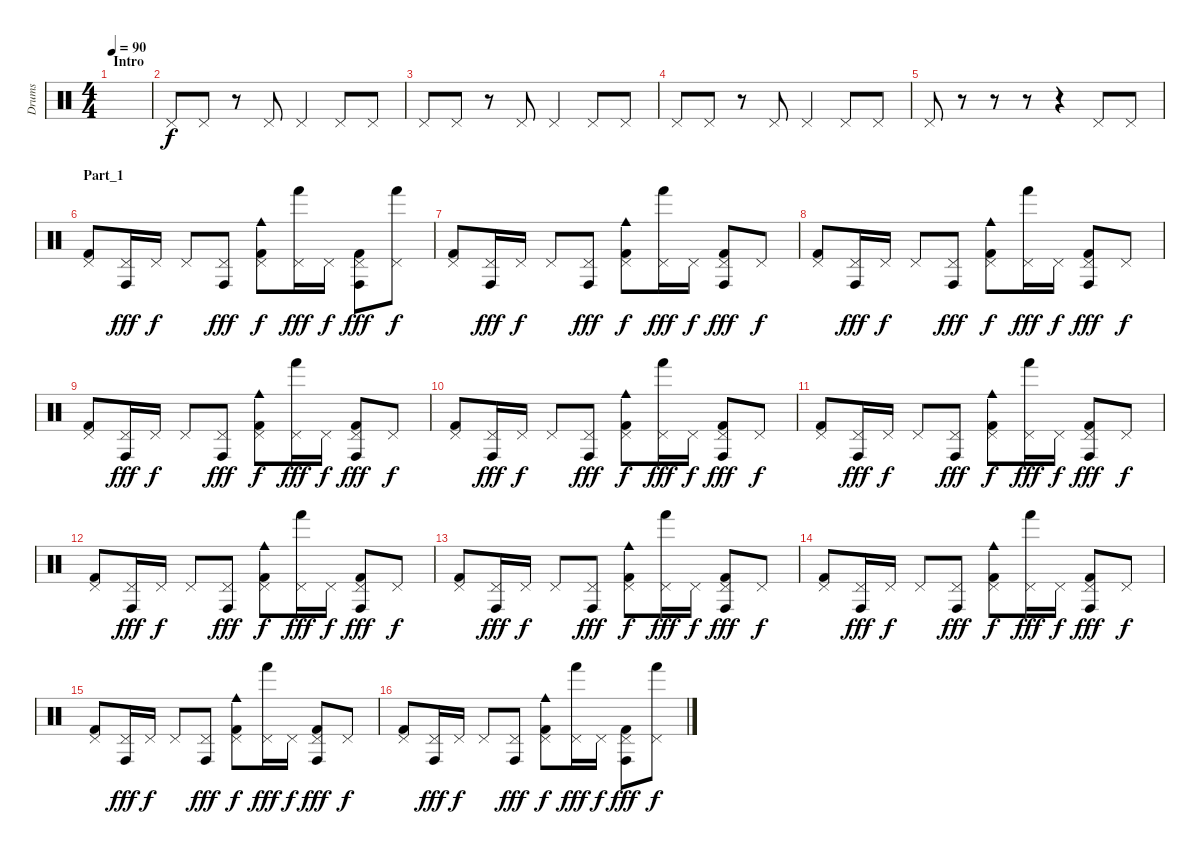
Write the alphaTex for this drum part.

\track (" Drums" " Drums") {instrument percussion}
\staff {score}
\articulation defaults
\ts (4 4)
\section ("" "Intro")
\tempo 90
\clef neutral
\ks c
|
"Pedal Hi-Hat (hit)".8 "Pedal Hi-Hat (hit)".8 r.8 "Pedal Hi-Hat (hit)".8 "Pedal Hi-Hat (hit)".4 "Pedal Hi-Hat (hit)".8 "Pedal Hi-Hat (hit)".8 |
"Pedal Hi-Hat (hit)".8 "Pedal Hi-Hat (hit)".8 r.8 "Pedal Hi-Hat (hit)".8 "Pedal Hi-Hat (hit)".4 "Pedal Hi-Hat (hit)".8 "Pedal Hi-Hat (hit)".8 |
"Pedal Hi-Hat (hit)".8 "Pedal Hi-Hat (hit)".8 r.8 "Pedal Hi-Hat (hit)".8 "Pedal Hi-Hat (hit)".4 "Pedal Hi-Hat (hit)".8 "Pedal Hi-Hat (hit)".8 |
"Pedal Hi-Hat (hit)".8 r.8 r.8 r.8 r.4 "Pedal Hi-Hat (hit)".8 "Pedal Hi-Hat (hit)".8 |
\section ("" "Part_1")
("Pedal Hi-Hat (hit)" "Kick (hit) 2").8 ("Pedal Hi-Hat (hit)" "Conga high (hit)").16{dy fff} "Pedal Hi-Hat (hit)".16{dy f} "Pedal Hi-Hat (hit)".8 ("Pedal Hi-Hat (hit)" "Conga high (hit)").8{dy fff} ("Pedal Hi-Hat (hit)" "Cowbell medium (hit)" "Kick (hit) 2").8{dy f} ("Pedal Hi-Hat (hit)" "Hand (hit)").16{dy fff} "Pedal Hi-Hat (hit)".16{dy f} ("Pedal Hi-Hat (hit)" "Conga high (hit)" "Kick (hit) 2").8{dy fff} ("Pedal Hi-Hat (hit)" "Hand (hit)").8{dy f} |
("Pedal Hi-Hat (hit)" "Kick (hit) 2").8 ("Pedal Hi-Hat (hit)" "Conga high (hit)").16{dy fff} "Pedal Hi-Hat (hit)".16{dy f} "Pedal Hi-Hat (hit)".8 ("Pedal Hi-Hat (hit)" "Conga high (hit)").8{dy fff} ("Pedal Hi-Hat (hit)" "Cowbell medium (hit)" "Kick (hit) 2").8{dy f} ("Pedal Hi-Hat (hit)" "Hand (hit)").16{dy fff} "Pedal Hi-Hat (hit)".16{dy f} ("Pedal Hi-Hat (hit)" "Conga high (hit)" "Kick (hit) 2").8{dy fff} "Pedal Hi-Hat (hit)".8{dy f} |
("Pedal Hi-Hat (hit)" "Kick (hit) 2").8 ("Pedal Hi-Hat (hit)" "Conga high (hit)").16{dy fff} "Pedal Hi-Hat (hit)".16{dy f} "Pedal Hi-Hat (hit)".8 ("Pedal Hi-Hat (hit)" "Conga high (hit)").8{dy fff} ("Pedal Hi-Hat (hit)" "Cowbell medium (hit)" "Kick (hit) 2").8{dy f} ("Pedal Hi-Hat (hit)" "Hand (hit)").16{dy fff} "Pedal Hi-Hat (hit)".16{dy f} ("Pedal Hi-Hat (hit)" "Conga high (hit)" "Kick (hit) 2").8{dy fff} "Pedal Hi-Hat (hit)".8{dy f} |
("Pedal Hi-Hat (hit)" "Kick (hit) 2").8 ("Pedal Hi-Hat (hit)" "Conga high (hit)").16{dy fff} "Pedal Hi-Hat (hit)".16{dy f} "Pedal Hi-Hat (hit)".8 ("Pedal Hi-Hat (hit)" "Conga high (hit)").8{dy fff} ("Pedal Hi-Hat (hit)" "Cowbell medium (hit)" "Kick (hit) 2").8{dy f} ("Pedal Hi-Hat (hit)" "Hand (hit)").16{dy fff} "Pedal Hi-Hat (hit)".16{dy f} ("Pedal Hi-Hat (hit)" "Conga high (hit)" "Kick (hit) 2").8{dy fff} "Pedal Hi-Hat (hit)".8{dy f} |
("Pedal Hi-Hat (hit)" "Kick (hit) 2").8 ("Pedal Hi-Hat (hit)" "Conga high (hit)").16{dy fff} "Pedal Hi-Hat (hit)".16{dy f} "Pedal Hi-Hat (hit)".8 ("Pedal Hi-Hat (hit)" "Conga high (hit)").8{dy fff} ("Pedal Hi-Hat (hit)" "Cowbell medium (hit)" "Kick (hit) 2").8{dy f} ("Pedal Hi-Hat (hit)" "Hand (hit)").16{dy fff} "Pedal Hi-Hat (hit)".16{dy f} ("Pedal Hi-Hat (hit)" "Conga high (hit)" "Kick (hit) 2").8{dy fff} "Pedal Hi-Hat (hit)".8{dy f} |
("Pedal Hi-Hat (hit)" "Kick (hit) 2").8 ("Pedal Hi-Hat (hit)" "Conga high (hit)").16{dy fff} "Pedal Hi-Hat (hit)".16{dy f} "Pedal Hi-Hat (hit)".8 ("Pedal Hi-Hat (hit)" "Conga high (hit)").8{dy fff} ("Pedal Hi-Hat (hit)" "Cowbell medium (hit)" "Kick (hit) 2").8{dy f} ("Pedal Hi-Hat (hit)" "Hand (hit)").16{dy fff} "Pedal Hi-Hat (hit)".16{dy f} ("Pedal Hi-Hat (hit)" "Conga high (hit)" "Kick (hit) 2").8{dy fff} "Pedal Hi-Hat (hit)".8{dy f} |
("Pedal Hi-Hat (hit)" "Kick (hit) 2").8 ("Pedal Hi-Hat (hit)" "Conga high (hit)").16{dy fff} "Pedal Hi-Hat (hit)".16{dy f} "Pedal Hi-Hat (hit)".8 ("Pedal Hi-Hat (hit)" "Conga high (hit)").8{dy fff} ("Pedal Hi-Hat (hit)" "Cowbell medium (hit)" "Kick (hit) 2").8{dy f} ("Pedal Hi-Hat (hit)" "Hand (hit)").16{dy fff} "Pedal Hi-Hat (hit)".16{dy f} ("Pedal Hi-Hat (hit)" "Conga high (hit)" "Kick (hit) 2").8{dy fff} "Pedal Hi-Hat (hit)".8{dy f} |
("Pedal Hi-Hat (hit)" "Kick (hit) 2").8 ("Pedal Hi-Hat (hit)" "Conga high (hit)").16{dy fff} "Pedal Hi-Hat (hit)".16{dy f} "Pedal Hi-Hat (hit)".8 ("Pedal Hi-Hat (hit)" "Conga high (hit)").8{dy fff} ("Pedal Hi-Hat (hit)" "Cowbell medium (hit)" "Kick (hit) 2").8{dy f} ("Pedal Hi-Hat (hit)" "Hand (hit)").16{dy fff} "Pedal Hi-Hat (hit)".16{dy f} ("Pedal Hi-Hat (hit)" "Conga high (hit)" "Kick (hit) 2").8{dy fff} "Pedal Hi-Hat (hit)".8{dy f} |
("Pedal Hi-Hat (hit)" "Kick (hit) 2").8 ("Pedal Hi-Hat (hit)" "Conga high (hit)").16{dy fff} "Pedal Hi-Hat (hit)".16{dy f} "Pedal Hi-Hat (hit)".8 ("Pedal Hi-Hat (hit)" "Conga high (hit)").8{dy fff} ("Pedal Hi-Hat (hit)" "Cowbell medium (hit)" "Kick (hit) 2").8{dy f} ("Pedal Hi-Hat (hit)" "Hand (hit)").16{dy fff} "Pedal Hi-Hat (hit)".16{dy f} ("Pedal Hi-Hat (hit)" "Conga high (hit)" "Kick (hit) 2").8{dy fff} "Pedal Hi-Hat (hit)".8{dy f} |
("Pedal Hi-Hat (hit)" "Kick (hit) 2").8 ("Pedal Hi-Hat (hit)" "Conga high (hit)").16{dy fff} "Pedal Hi-Hat (hit)".16{dy f} "Pedal Hi-Hat (hit)".8 ("Pedal Hi-Hat (hit)" "Conga high (hit)").8{dy fff} ("Pedal Hi-Hat (hit)" "Cowbell medium (hit)" "Kick (hit) 2").8{dy f} ("Pedal Hi-Hat (hit)" "Hand (hit)").16{dy fff} "Pedal Hi-Hat (hit)".16{dy f} ("Pedal Hi-Hat (hit)" "Conga high (hit)" "Kick (hit) 2").8{dy fff} "Pedal Hi-Hat (hit)".8{dy f} |
("Pedal Hi-Hat (hit)" "Kick (hit) 2").8 ("Pedal Hi-Hat (hit)" "Conga high (hit)").16{dy fff} "Pedal Hi-Hat (hit)".16{dy f} "Pedal Hi-Hat (hit)".8 ("Pedal Hi-Hat (hit)" "Conga high (hit)").8{dy fff} ("Pedal Hi-Hat (hit)" "Cowbell medium (hit)" "Kick (hit) 2").8{dy f} ("Pedal Hi-Hat (hit)" "Hand (hit)").16{dy fff} "Pedal Hi-Hat (hit)".16{dy f} ("Pedal Hi-Hat (hit)" "Conga high (hit)" "Kick (hit) 2").8{dy fff} ("Pedal Hi-Hat (hit)" "Hand (hit)").8{dy f}
